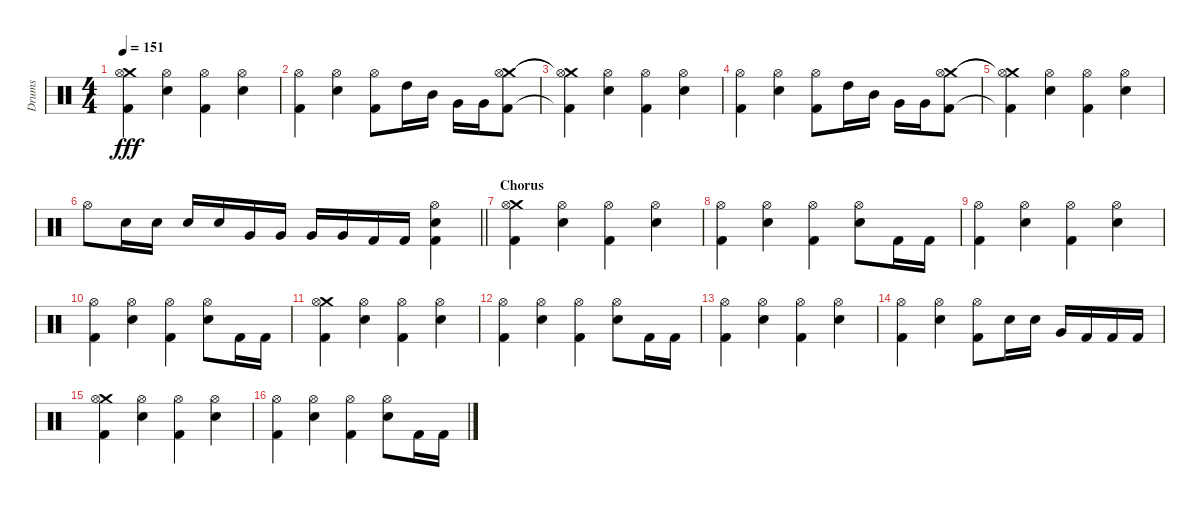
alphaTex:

\track ("Drums" "Drums") {instrument percussion}
\staff {score}
\articulation defaults
\ts (4 4)
\tempo 151
\clef neutral
\ks c
("Crash medium (hit)"{t} "Hi-Hat (open)"{t} "Kick (hit) 2"{t}).4{dy fff} ("Hi-Hat (open)" "Electric Snare (hit)").4 ("Hi-Hat (open)" "Kick (hit) 2").4 ("Hi-Hat (open)" "Electric Snare (hit)").4 |
("Hi-Hat (open)" "Kick (hit) 2").4 ("Hi-Hat (open)" "Electric Snare (hit)").4 ("Hi-Hat (open)" "Kick (hit) 2").8 "High Tom (hit)".16 "Mid Tom (hit)".16 "Very Low Tom (hit)".16 "Very Low Tom (hit)".16 ("Crash medium (hit)" "Hi-Hat (open)" "Kick (hit) 2").8 |
("Crash medium (hit)"{t} "Hi-Hat (open)"{t} "Kick (hit) 2"{t}).4 ("Hi-Hat (open)" "Electric Snare (hit)").4 ("Hi-Hat (open)" "Kick (hit) 2").4 ("Hi-Hat (open)" "Electric Snare (hit)").4 |
("Hi-Hat (open)" "Kick (hit) 2").4 ("Hi-Hat (open)" "Electric Snare (hit)").4 ("Hi-Hat (open)" "Kick (hit) 2").8 "High Tom (hit)".16 "Mid Tom (hit)".16 "Very Low Tom (hit)".16 "Very Low Tom (hit)".16 ("Crash medium (hit)" "Hi-Hat (open)" "Kick (hit) 2").8 |
("Crash medium (hit)"{t} "Hi-Hat (open)"{t} "Kick (hit) 2"{t}).4 ("Hi-Hat (open)" "Electric Snare (hit)").4 ("Hi-Hat (open)" "Kick (hit) 2").4 ("Hi-Hat (open)" "Electric Snare (hit)").4 |
\barLineRight lightlight "Hi-Hat (open)".8 "Electric Snare (hit)".16 "Electric Snare (hit)".16 "Electric Snare (hit)".16 "Electric Snare (hit)".16 "Very Low Tom (hit)".16 "Very Low Tom (hit)".16 "Very Low Tom (hit)".16 "Very Low Tom (hit)".16 "Kick (hit) 2".16 "Kick (hit) 2".16
("Hi-Hat (open)" "Electric Snare (hit)" "Kick (hit) 2").4 |
\section ("" "Chorus")
("Crash medium (hit)" "Hi-Hat (open)" "Kick (hit) 2").4 ("Hi-Hat (open)" "Electric Snare (hit)").4 ("Hi-Hat (open)" "Kick (hit) 2").4 ("Hi-Hat (open)" "Electric Snare (hit)").4 |
("Hi-Hat (open)" "Kick (hit) 2").4 ("Hi-Hat (open)" "Electric Snare (hit)").4 ("Hi-Hat (open)" "Kick (hit) 2").4 ("Hi-Hat (open)" "Electric Snare (hit)").8 "Kick (hit) 2".16 "Kick (hit) 2".16 |
("Hi-Hat (open)" "Kick (hit) 2").4 ("Hi-Hat (open)" "Electric Snare (hit)").4 ("Hi-Hat (open)" "Kick (hit) 2").4 ("Hi-Hat (open)" "Electric Snare (hit)").4 |
("Hi-Hat (open)" "Kick (hit) 2").4 ("Hi-Hat (open)" "Electric Snare (hit)").4 ("Hi-Hat (open)" "Kick (hit) 2").4 ("Hi-Hat (open)" "Electric Snare (hit)").8 "Kick (hit) 2".16 "Kick (hit) 2".16 |
("Crash medium (hit)" "Hi-Hat (open)" "Kick (hit) 2").4 ("Hi-Hat (open)" "Electric Snare (hit)").4 ("Hi-Hat (open)" "Kick (hit) 2").4 ("Hi-Hat (open)" "Electric Snare (hit)").4 |
("Hi-Hat (open)" "Kick (hit) 2").4 ("Hi-Hat (open)" "Electric Snare (hit)").4 ("Hi-Hat (open)" "Kick (hit) 2").4 ("Hi-Hat (open)" "Electric Snare (hit)").8 "Kick (hit) 2".16 "Kick (hit) 2".16 |
("Hi-Hat (open)" "Kick (hit) 2").4 ("Hi-Hat (open)" "Electric Snare (hit)").4 ("Hi-Hat (open)" "Kick (hit) 2").4 ("Hi-Hat (open)" "Electric Snare (hit)").4 |
("Hi-Hat (open)" "Kick (hit) 2").4 ("Hi-Hat (open)" "Electric Snare (hit)").4 ("Hi-Hat (open)" "Kick (hit) 2").8 "Electric Snare (hit)".16 "Electric Snare (hit)".16 "Very Low Tom (hit)".16 "Kick (hit) 2".16 "Kick (hit) 2".16 "Kick (hit) 2".16 |
("Crash medium (hit)" "Hi-Hat (open)" "Kick (hit) 2").4 ("Hi-Hat (open)" "Electric Snare (hit)").4 ("Hi-Hat (open)" "Kick (hit) 2").4 ("Hi-Hat (open)" "Electric Snare (hit)").4 |
("Hi-Hat (open)" "Kick (hit) 2").4 ("Hi-Hat (open)" "Electric Snare (hit)").4 ("Hi-Hat (open)" "Kick (hit) 2").4 ("Hi-Hat (open)" "Electric Snare (hit)").8 "Kick (hit) 2".16 "Kick (hit) 2".16
